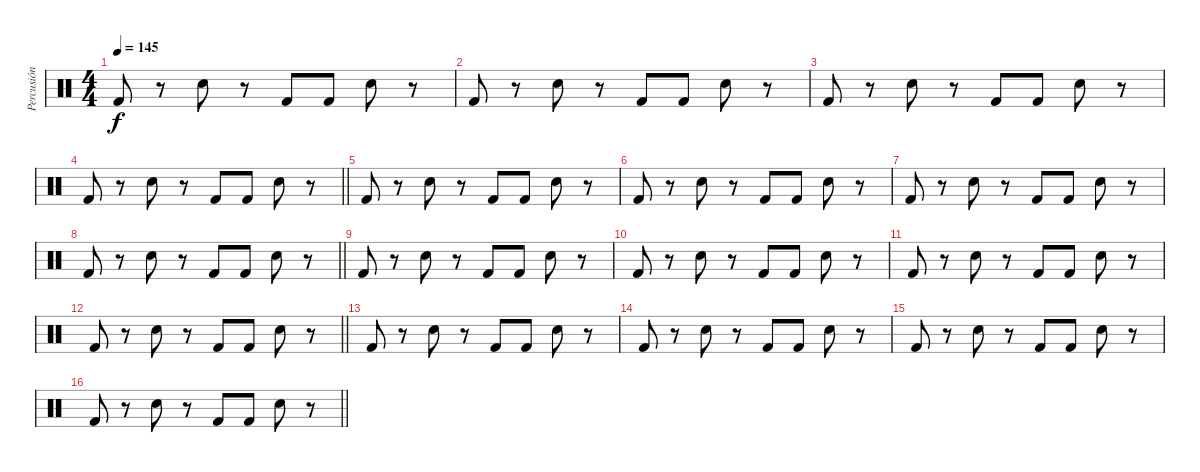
\track ("Percusión" "Percusión") {instrument percussion}
\staff {score}
\articulation defaults
\ts (4 4)
\tempo 145
\clef neutral
\ks c "Kick (hit) 2".8{dy f}
r.8 "Snare (hit) 2".8 r.8 "Kick (hit) 2".8 "Kick (hit) 2".8 "Snare (hit) 2".8 r.8 |
"Kick (hit) 2".8 r.8 "Snare (hit) 2".8 r.8 "Kick (hit) 2".8 "Kick (hit) 2".8 "Snare (hit) 2".8 r.8 |
"Kick (hit) 2".8 r.8 "Snare (hit) 2".8 r.8 "Kick (hit) 2".8 "Kick (hit) 2".8 "Snare (hit) 2".8 r.8 |
\barLineRight lightlight "Kick (hit) 2".8
r.8 "Snare (hit) 2".8 r.8 "Kick (hit) 2".8 "Kick (hit) 2".8 "Snare (hit) 2".8 r.8 |
"Kick (hit) 2".8 r.8 "Snare (hit) 2".8 r.8 "Kick (hit) 2".8 "Kick (hit) 2".8 "Snare (hit) 2".8 r.8 |
"Kick (hit) 2".8 r.8 "Snare (hit) 2".8 r.8 "Kick (hit) 2".8 "Kick (hit) 2".8 "Snare (hit) 2".8 r.8 |
"Kick (hit) 2".8 r.8 "Snare (hit) 2".8 r.8 "Kick (hit) 2".8 "Kick (hit) 2".8 "Snare (hit) 2".8 r.8 |
\barLineRight lightlight "Kick (hit) 2".8
r.8 "Snare (hit) 2".8 r.8 "Kick (hit) 2".8 "Kick (hit) 2".8 "Snare (hit) 2".8 r.8 |
"Kick (hit) 2".8 r.8 "Snare (hit) 2".8 r.8 "Kick (hit) 2".8 "Kick (hit) 2".8 "Snare (hit) 2".8 r.8 |
"Kick (hit) 2".8 r.8 "Snare (hit) 2".8 r.8 "Kick (hit) 2".8 "Kick (hit) 2".8 "Snare (hit) 2".8 r.8 |
"Kick (hit) 2".8 r.8 "Snare (hit) 2".8 r.8 "Kick (hit) 2".8 "Kick (hit) 2".8 "Snare (hit) 2".8 r.8 |
\barLineRight lightlight "Kick (hit) 2".8
r.8 "Snare (hit) 2".8 r.8 "Kick (hit) 2".8 "Kick (hit) 2".8 "Snare (hit) 2".8 r.8 |
"Kick (hit) 2".8 r.8 "Snare (hit) 2".8 r.8 "Kick (hit) 2".8 "Kick (hit) 2".8 "Snare (hit) 2".8 r.8 |
"Kick (hit) 2".8 r.8 "Snare (hit) 2".8 r.8 "Kick (hit) 2".8 "Kick (hit) 2".8 "Snare (hit) 2".8 r.8 |
"Kick (hit) 2".8 r.8 "Snare (hit) 2".8 r.8 "Kick (hit) 2".8 "Kick (hit) 2".8 "Snare (hit) 2".8 r.8 |
\barLineRight lightlight "Kick (hit) 2".8
r.8 "Snare (hit) 2".8 r.8 "Kick (hit) 2".8 "Kick (hit) 2".8 "Snare (hit) 2".8 r.8
